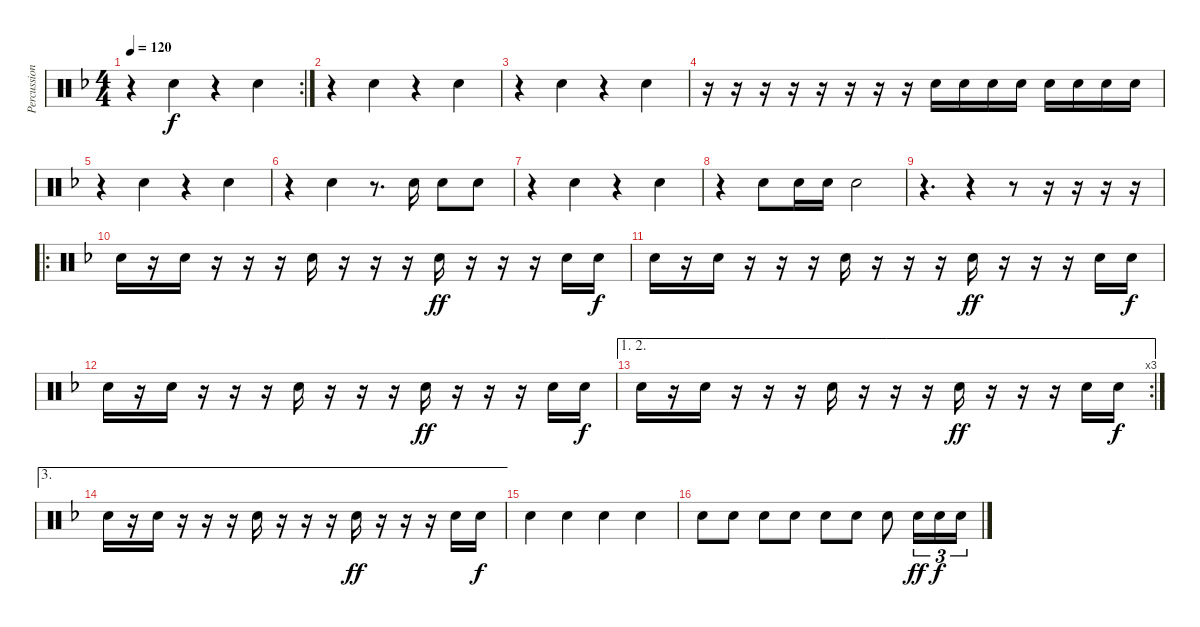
\track ("Percussion" "Percussion") {instrument percussion}
\staff {score}
\articulation defaults
\rc 2
\ts (4 4)
\tempo 120
\clef neutral
\ks f
r.4{dy f} "Electric Snare (hit)".4 r.4 "Electric Snare (hit)".4 |
r.4 "Electric Snare (hit)".4 r.4 "Electric Snare (hit)".4 |
r.4 "Electric Snare (hit)".4 r.4 "Electric Snare (hit)".4 |
r.16 r.16 r.16 r.16 r.16 r.16 r.16 r.16 "Electric Snare (hit)".16 "Electric Snare (hit)".16 "Electric Snare (hit)".16 "Electric Snare (hit)".16 "Electric Snare (hit)".16 "Electric Snare (hit)".16 "Electric Snare (hit)".16 "Electric Snare (hit)".16 |
r.4 "Electric Snare (hit)".4 r.4 "Electric Snare (hit)".4 |
r.4 "Electric Snare (hit)".4 r.8{d} "Electric Snare (hit)".16 "Electric Snare (hit)".8 "Electric Snare (hit)".8 |
r.4 "Electric Snare (hit)".4 r.4 "Electric Snare (hit)".4 |
r.4 "Electric Snare (hit)".8 "Electric Snare (hit)".16 "Electric Snare (hit)".16 "Electric Snare (hit)".2 |
r.4{d} r.4 r.8 r.16 r.16 r.16 r.16 |
\ro "Electric Snare (hit)".16
r.16 "Electric Snare (hit)".16 r.16 r.16 r.16 "Electric Snare (hit)".16 r.16 r.16 r.16 "Electric Snare (hit)".16{dy ff} r.16 r.16 r.16 "Electric Snare (hit)".16 "Electric Snare (hit)".16{dy f} |
"Electric Snare (hit)".16 r.16 "Electric Snare (hit)".16 r.16 r.16 r.16 "Electric Snare (hit)".16 r.16 r.16 r.16 "Electric Snare (hit)".16{dy ff} r.16 r.16 r.16 "Electric Snare (hit)".16 "Electric Snare (hit)".16{dy f} |
"Electric Snare (hit)".16 r.16 "Electric Snare (hit)".16 r.16 r.16 r.16 "Electric Snare (hit)".16 r.16 r.16 r.16 "Electric Snare (hit)".16{dy ff} r.16 r.16 r.16 "Electric Snare (hit)".16 "Electric Snare (hit)".16{dy f} |
\ae (1 2)
\rc 3 "Electric Snare (hit)".16
r.16 "Electric Snare (hit)".16 r.16 r.16 r.16 "Electric Snare (hit)".16 r.16 r.16 r.16 "Electric Snare (hit)".16{dy ff} r.16 r.16 r.16 "Electric Snare (hit)".16 "Electric Snare (hit)".16{dy f} |
\ae 3 "Electric Snare (hit)".16
r.16 "Electric Snare (hit)".16 r.16 r.16 r.16 "Electric Snare (hit)".16 r.16 r.16 r.16 "Electric Snare (hit)".16{dy ff} r.16 r.16 r.16 "Electric Snare (hit)".16 "Electric Snare (hit)".16{dy f} |
"Electric Snare (hit)".4 "Electric Snare (hit)".4 "Electric Snare (hit)".4 "Electric Snare (hit)".4 |
"Electric Snare (hit)".8 "Electric Snare (hit)".8 "Electric Snare (hit)".8 "Electric Snare (hit)".8 "Electric Snare (hit)".8 "Electric Snare (hit)".8 "Electric Snare (hit)".8 "Electric Snare (hit)".16{tu (3 2) dy ff} "Electric Snare (hit)".16{tu (3 2) dy f} "Electric Snare (hit)".16{tu (3 2)}
